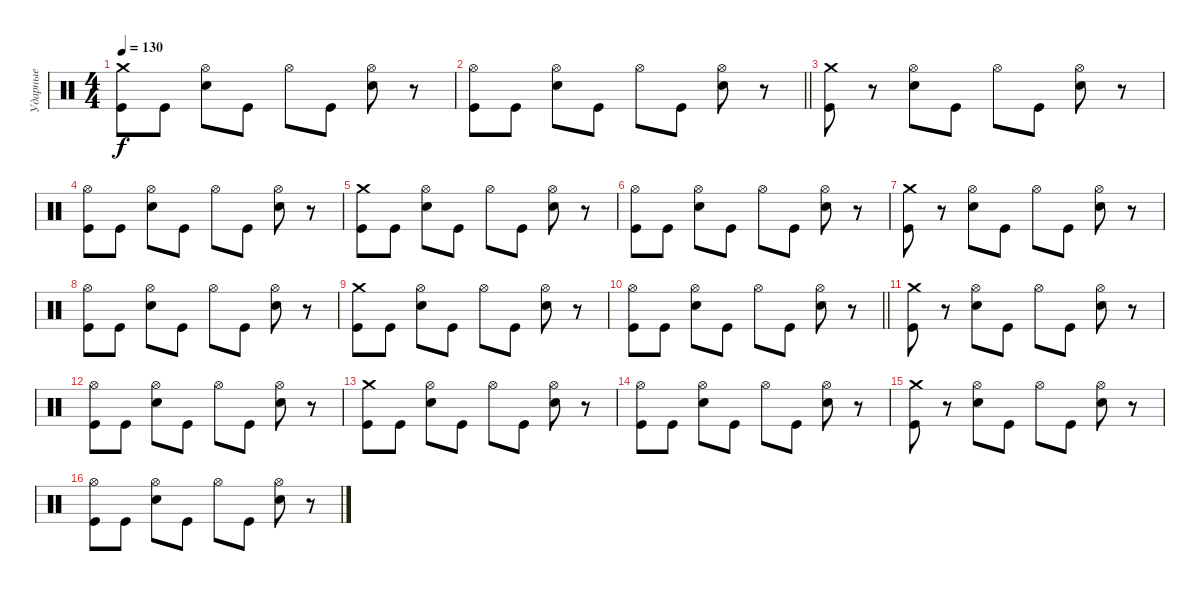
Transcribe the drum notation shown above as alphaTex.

\track ("Ударные" "Ударные") {instrument percussion}
\staff {score}
\articulation defaults
\ts (4 4)
\tempo 130
\clef neutral
\ks c
("Crash medium (hit)" "Kick (hit)").8{dy f} "Kick (hit)".8 ("Hi-Hat (open)" "Electric Snare (hit)").8 "Kick (hit)".8 "Hi-Hat (open)".8 "Kick (hit)".8 ("Hi-Hat (open)" "Electric Snare (hit)").8 r.8 |
\barLineRight lightlight
("Hi-Hat (open)" "Kick (hit)").8 "Kick (hit)".8 ("Hi-Hat (open)" "Electric Snare (hit)").8 "Kick (hit)".8 "Hi-Hat (open)".8 "Kick (hit)".8 ("Hi-Hat (open)" "Electric Snare (hit)").8 r.8 |
\section ("" " ")
("Crash medium (hit)" "Kick (hit)").8 r.8 ("Hi-Hat (open)" "Electric Snare (hit)").8 "Kick (hit)".8 "Hi-Hat (open)".8 "Kick (hit)".8 ("Hi-Hat (open)" "Electric Snare (hit)").8 r.8 |
("Hi-Hat (open)" "Kick (hit)").8 "Kick (hit)".8 ("Hi-Hat (open)" "Electric Snare (hit)").8 "Kick (hit)".8 "Hi-Hat (open)".8 "Kick (hit)".8 ("Hi-Hat (open)" "Electric Snare (hit)").8 r.8 |
("Crash medium (hit)" "Kick (hit)").8 "Kick (hit)".8 ("Hi-Hat (open)" "Electric Snare (hit)").8 "Kick (hit)".8 "Hi-Hat (open)".8 "Kick (hit)".8 ("Hi-Hat (open)" "Electric Snare (hit)").8 r.8 |
("Hi-Hat (open)" "Kick (hit)").8 "Kick (hit)".8 ("Hi-Hat (open)" "Electric Snare (hit)").8 "Kick (hit)".8 "Hi-Hat (open)".8 "Kick (hit)".8 ("Hi-Hat (open)" "Electric Snare (hit)").8 r.8 |
("Crash medium (hit)" "Kick (hit)").8 r.8 ("Hi-Hat (open)" "Electric Snare (hit)").8 "Kick (hit)".8 "Hi-Hat (open)".8 "Kick (hit)".8 ("Hi-Hat (open)" "Electric Snare (hit)").8 r.8 |
("Hi-Hat (open)" "Kick (hit)").8 "Kick (hit)".8 ("Hi-Hat (open)" "Electric Snare (hit)").8 "Kick (hit)".8 "Hi-Hat (open)".8 "Kick (hit)".8 ("Hi-Hat (open)" "Electric Snare (hit)").8 r.8 |
("Crash medium (hit)" "Kick (hit)").8 "Kick (hit)".8 ("Hi-Hat (open)" "Electric Snare (hit)").8 "Kick (hit)".8 "Hi-Hat (open)".8 "Kick (hit)".8 ("Hi-Hat (open)" "Electric Snare (hit)").8 r.8 |
\barLineRight lightlight
("Hi-Hat (open)" "Kick (hit)").8 "Kick (hit)".8 ("Hi-Hat (open)" "Electric Snare (hit)").8 "Kick (hit)".8 "Hi-Hat (open)".8 "Kick (hit)".8 ("Hi-Hat (open)" "Electric Snare (hit)").8 r.8 |
\section ("" " ")
("Crash medium (hit)" "Kick (hit)").8 r.8 ("Hi-Hat (open)" "Electric Snare (hit)").8 "Kick (hit)".8 "Hi-Hat (open)".8 "Kick (hit)".8 ("Hi-Hat (open)" "Electric Snare (hit)").8 r.8 |
("Hi-Hat (open)" "Kick (hit)").8 "Kick (hit)".8 ("Hi-Hat (open)" "Electric Snare (hit)").8 "Kick (hit)".8 "Hi-Hat (open)".8 "Kick (hit)".8 ("Hi-Hat (open)" "Electric Snare (hit)").8 r.8 |
("Crash medium (hit)" "Kick (hit)").8 "Kick (hit)".8 ("Hi-Hat (open)" "Electric Snare (hit)").8 "Kick (hit)".8 "Hi-Hat (open)".8 "Kick (hit)".8 ("Hi-Hat (open)" "Electric Snare (hit)").8 r.8 |
("Hi-Hat (open)" "Kick (hit)").8 "Kick (hit)".8 ("Hi-Hat (open)" "Electric Snare (hit)").8 "Kick (hit)".8 "Hi-Hat (open)".8 "Kick (hit)".8 ("Hi-Hat (open)" "Electric Snare (hit)").8 r.8 |
("Crash medium (hit)" "Kick (hit)").8 r.8 ("Hi-Hat (open)" "Electric Snare (hit)").8 "Kick (hit)".8 "Hi-Hat (open)".8 "Kick (hit)".8 ("Hi-Hat (open)" "Electric Snare (hit)").8 r.8 |
("Hi-Hat (open)" "Kick (hit)").8 "Kick (hit)".8 ("Hi-Hat (open)" "Electric Snare (hit)").8 "Kick (hit)".8 "Hi-Hat (open)".8 "Kick (hit)".8 ("Hi-Hat (open)" "Electric Snare (hit)").8 r.8
